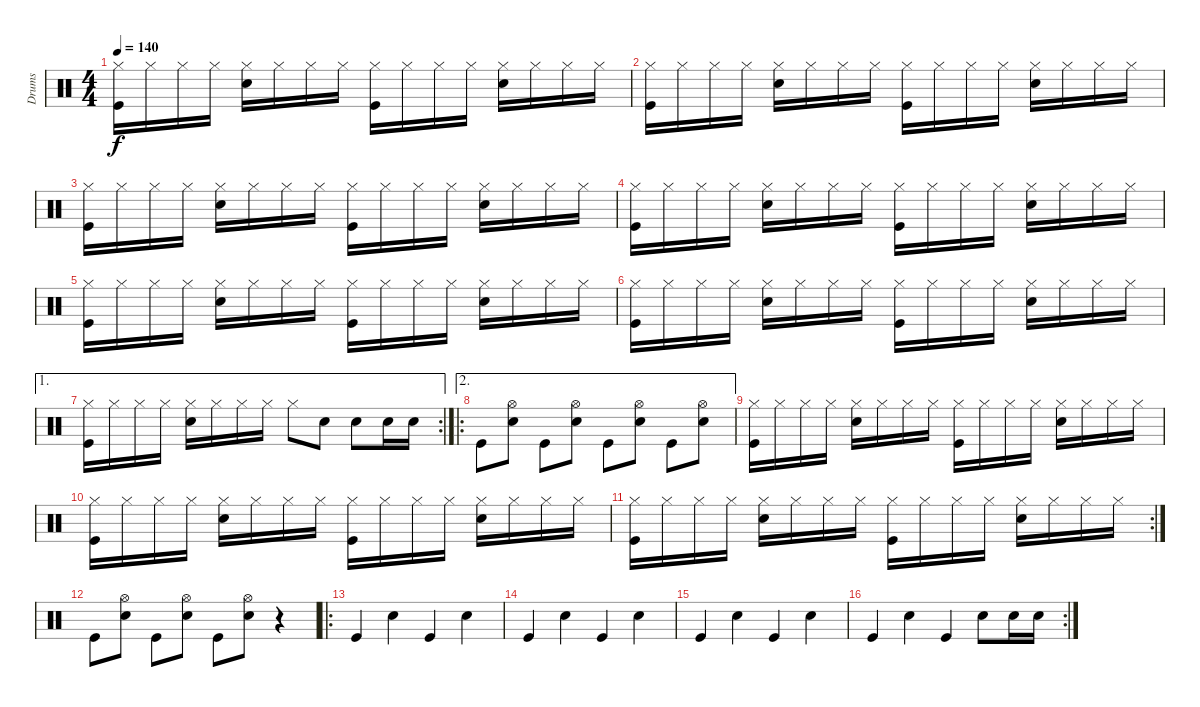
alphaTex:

\track ("Drums" "Drums") {instrument percussion}
\staff {score}
\articulation defaults
\ts (4 4)
\tempo 140
\clef neutral
\ks c
("Hi-Hat (closed)" "Kick (hit)").16{dy f} "Hi-Hat (closed)".16 "Hi-Hat (closed)".16 "Hi-Hat (closed)".16 ("Snare (hit) 2" "Hi-Hat (closed)").16 "Hi-Hat (closed)".16 "Hi-Hat (closed)".16 "Hi-Hat (closed)".16 ("Hi-Hat (closed)" "Kick (hit)").16 "Hi-Hat (closed)".16 "Hi-Hat (closed)".16 "Hi-Hat (closed)".16 ("Snare (hit) 2" "Hi-Hat (closed)").16 "Hi-Hat (closed)".16 "Hi-Hat (closed)".16 "Hi-Hat (closed)".16 |
("Hi-Hat (closed)" "Kick (hit)").16 "Hi-Hat (closed)".16 "Hi-Hat (closed)".16 "Hi-Hat (closed)".16 ("Snare (hit) 2" "Hi-Hat (closed)").16 "Hi-Hat (closed)".16 "Hi-Hat (closed)".16 "Hi-Hat (closed)".16 ("Hi-Hat (closed)" "Kick (hit)").16 "Hi-Hat (closed)".16 "Hi-Hat (closed)".16 "Hi-Hat (closed)".16 ("Snare (hit) 2" "Hi-Hat (closed)").16 "Hi-Hat (closed)".16 "Hi-Hat (closed)".16 "Hi-Hat (closed)".16 |
("Hi-Hat (closed)" "Kick (hit)").16 "Hi-Hat (closed)".16 "Hi-Hat (closed)".16 "Hi-Hat (closed)".16 ("Snare (hit) 2" "Hi-Hat (closed)").16 "Hi-Hat (closed)".16 "Hi-Hat (closed)".16 "Hi-Hat (closed)".16 ("Hi-Hat (closed)" "Kick (hit)").16 "Hi-Hat (closed)".16 "Hi-Hat (closed)".16 "Hi-Hat (closed)".16 ("Snare (hit) 2" "Hi-Hat (closed)").16 "Hi-Hat (closed)".16 "Hi-Hat (closed)".16 "Hi-Hat (closed)".16 |
("Hi-Hat (closed)" "Kick (hit)").16 "Hi-Hat (closed)".16 "Hi-Hat (closed)".16 "Hi-Hat (closed)".16 ("Snare (hit) 2" "Hi-Hat (closed)").16 "Hi-Hat (closed)".16 "Hi-Hat (closed)".16 "Hi-Hat (closed)".16 ("Hi-Hat (closed)" "Kick (hit)").16 "Hi-Hat (closed)".16 "Hi-Hat (closed)".16 "Hi-Hat (closed)".16 ("Snare (hit) 2" "Hi-Hat (closed)").16 "Hi-Hat (closed)".16 "Hi-Hat (closed)".16 "Hi-Hat (closed)".16 |
("Hi-Hat (closed)" "Kick (hit)").16 "Hi-Hat (closed)".16 "Hi-Hat (closed)".16 "Hi-Hat (closed)".16 ("Snare (hit) 2" "Hi-Hat (closed)").16 "Hi-Hat (closed)".16 "Hi-Hat (closed)".16 "Hi-Hat (closed)".16 ("Hi-Hat (closed)" "Kick (hit)").16 "Hi-Hat (closed)".16 "Hi-Hat (closed)".16 "Hi-Hat (closed)".16 ("Snare (hit) 2" "Hi-Hat (closed)").16 "Hi-Hat (closed)".16 "Hi-Hat (closed)".16 "Hi-Hat (closed)".16 |
("Hi-Hat (closed)" "Kick (hit)").16 "Hi-Hat (closed)".16 "Hi-Hat (closed)".16 "Hi-Hat (closed)".16 ("Snare (hit) 2" "Hi-Hat (closed)").16 "Hi-Hat (closed)".16 "Hi-Hat (closed)".16 "Hi-Hat (closed)".16 ("Hi-Hat (closed)" "Kick (hit)").16 "Hi-Hat (closed)".16 "Hi-Hat (closed)".16 "Hi-Hat (closed)".16 ("Snare (hit) 2" "Hi-Hat (closed)").16 "Hi-Hat (closed)".16 "Hi-Hat (closed)".16 "Hi-Hat (closed)".16 |
\ae 1
\rc 2
("Hi-Hat (closed)" "Kick (hit)").16 "Hi-Hat (closed)".16 "Hi-Hat (closed)".16 "Hi-Hat (closed)".16 ("Snare (hit) 2" "Hi-Hat (closed)").16 "Hi-Hat (closed)".16 "Hi-Hat (closed)".16 "Hi-Hat (closed)".16 "Hi-Hat (closed)".8 "Snare (hit) 2".8 "Snare (hit) 2".8 "Snare (hit) 2".16 "Snare (hit) 2".16 |
\ae 2
\ro "Kick (hit)".8
("Snare (hit) 2" "Hi-Hat (open)").8 "Kick (hit)".8 ("Snare (hit) 2" "Hi-Hat (open)").8 "Kick (hit)".8 ("Snare (hit) 2" "Hi-Hat (open)").8 "Kick (hit)".8 ("Snare (hit) 2" "Hi-Hat (open)").8 |
("Hi-Hat (closed)" "Kick (hit)").16 "Hi-Hat (closed)".16 "Hi-Hat (closed)".16 "Hi-Hat (closed)".16 ("Snare (hit) 2" "Hi-Hat (closed)").16 "Hi-Hat (closed)".16 "Hi-Hat (closed)".16 "Hi-Hat (closed)".16 ("Hi-Hat (closed)" "Kick (hit)").16 "Hi-Hat (closed)".16 "Hi-Hat (closed)".16 "Hi-Hat (closed)".16 ("Snare (hit) 2" "Hi-Hat (closed)").16 "Hi-Hat (closed)".16 "Hi-Hat (closed)".16 "Hi-Hat (closed)".16 |
("Hi-Hat (closed)" "Kick (hit)").16 "Hi-Hat (closed)".16 "Hi-Hat (closed)".16 "Hi-Hat (closed)".16 ("Snare (hit) 2" "Hi-Hat (closed)").16 "Hi-Hat (closed)".16 "Hi-Hat (closed)".16 "Hi-Hat (closed)".16 ("Hi-Hat (closed)" "Kick (hit)").16 "Hi-Hat (closed)".16 "Hi-Hat (closed)".16 "Hi-Hat (closed)".16 ("Snare (hit) 2" "Hi-Hat (closed)").16 "Hi-Hat (closed)".16 "Hi-Hat (closed)".16 "Hi-Hat (closed)".16 |
\rc 2
("Hi-Hat (closed)" "Kick (hit)").16 "Hi-Hat (closed)".16 "Hi-Hat (closed)".16 "Hi-Hat (closed)".16 ("Snare (hit) 2" "Hi-Hat (closed)").16 "Hi-Hat (closed)".16 "Hi-Hat (closed)".16 "Hi-Hat (closed)".16 ("Hi-Hat (closed)" "Kick (hit)").16 "Hi-Hat (closed)".16 "Hi-Hat (closed)".16 "Hi-Hat (closed)".16 ("Snare (hit) 2" "Hi-Hat (closed)").16 "Hi-Hat (closed)".16 "Hi-Hat (closed)".16 "Hi-Hat (closed)".16 |
"Kick (hit)".8 ("Snare (hit) 2" "Hi-Hat (open)").8 "Kick (hit)".8 ("Snare (hit) 2" "Hi-Hat (open)").8 "Kick (hit)".8 ("Snare (hit) 2" "Hi-Hat (open)").8 r.4 |
\ro "Kick (hit)".4 "Snare (hit) 2".4 "Kick (hit)".4 "Snare (hit) 2".4
|
"Kick (hit)".4 "Snare (hit) 2".4 "Kick (hit)".4 "Snare (hit) 2".4 |
"Kick (hit)".4 "Snare (hit) 2".4 "Kick (hit)".4 "Snare (hit) 2".4 |
\rc 2 "Kick (hit)".4 "Snare (hit) 2".4 "Kick (hit)".4 "Snare (hit) 2".8 "Snare (hit) 2".16 "Snare (hit) 2".16
